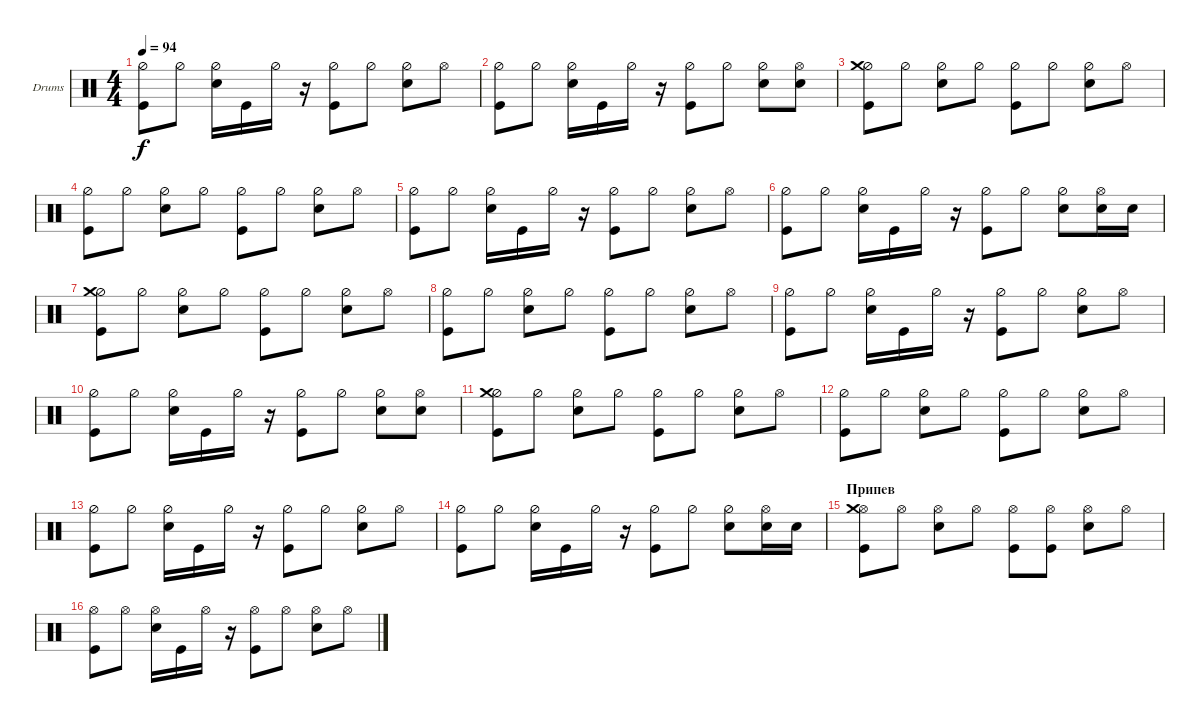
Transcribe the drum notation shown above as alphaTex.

\defaultSystemsLayout 4
\bracketExtendMode groupsimilarinstruments
\firstSystemTrackNameOrientation horizontal
\otherSystemsTrackNameOrientation horizontal
\track ("Drumkit" "Drums") {instrument percussion}
\staff {score}
\articulation defaults
\ts (4 4)
\tempo 94
\clef neutral
\scale
0.333333
\ks c
("Kick (hit)" "Hi-Hat (half)").8{dy f} "Hi-Hat (half)".8 ("Snare (hit) 2" "Hi-Hat (half)").16 "Kick (hit)".16 "Hi-Hat (half)".16 r.16 ("Hi-Hat (half)" "Kick (hit)").8 "Hi-Hat (half)".8 ("Hi-Hat (half)" "Snare (hit) 2").8 "Hi-Hat (open)".8 |
\scale
0.333333 ("Kick (hit)" "Hi-Hat (half)").8 "Hi-Hat (half)".8 ("Snare (hit) 2" "Hi-Hat (half)").16 "Kick (hit)".16 "Hi-Hat (half)".16 r.16 ("Hi-Hat (half)" "Kick (hit)").8 "Hi-Hat (half)".8 ("Hi-Hat (half)" "Snare (hit) 2").8 ("Hi-Hat (open)" "Snare (hit) 2").8 |
("Kick (hit)" "Hi-Hat (half)" "Crash medium (hit)").8 "Hi-Hat (half)".8 ("Snare (hit) 2" "Hi-Hat (half)").8 "Hi-Hat (half)".8 ("Kick (hit)" "Hi-Hat (half)").8 "Hi-Hat (half)".8 ("Snare (hit) 2" "Hi-Hat (half)").8 "Hi-Hat (open)".8 |
("Kick (hit)" "Hi-Hat (half)").8 "Hi-Hat (half)".8 ("Snare (hit) 2" "Hi-Hat (half)").8 "Hi-Hat (half)".8 ("Kick (hit)" "Hi-Hat (half)").8 "Hi-Hat (half)".8 ("Snare (hit) 2" "Hi-Hat (half)").8 "Hi-Hat (open)".8 |
("Kick (hit)" "Hi-Hat (half)").8 "Hi-Hat (half)".8 ("Snare (hit) 2" "Hi-Hat (half)").16 "Kick (hit)".16 "Hi-Hat (half)".16 r.16 ("Hi-Hat (half)" "Kick (hit)").8 "Hi-Hat (half)".8 ("Hi-Hat (half)" "Snare (hit) 2").8 "Hi-Hat (open)".8 |
("Kick (hit)" "Hi-Hat (half)").8 "Hi-Hat (half)".8 ("Snare (hit) 2" "Hi-Hat (half)").16 "Kick (hit)".16 "Hi-Hat (half)".16 r.16 ("Hi-Hat (half)" "Kick (hit)").8 "Hi-Hat (half)".8 ("Hi-Hat (half)" "Snare (hit) 2").8 ("Hi-Hat (open)" "Snare (hit) 2").16 "Snare (hit) 2".16 |
("Kick (hit)" "Hi-Hat (half)" "Crash medium (hit)").8 "Hi-Hat (half)".8 ("Snare (hit) 2" "Hi-Hat (half)").8 "Hi-Hat (half)".8 ("Kick (hit)" "Hi-Hat (half)").8 "Hi-Hat (half)".8 ("Snare (hit) 2" "Hi-Hat (half)").8 "Hi-Hat (open)".8 |
("Kick (hit)" "Hi-Hat (half)").8 "Hi-Hat (half)".8 ("Snare (hit) 2" "Hi-Hat (half)").8 "Hi-Hat (half)".8 ("Kick (hit)" "Hi-Hat (half)").8 "Hi-Hat (half)".8 ("Snare (hit) 2" "Hi-Hat (half)").8 "Hi-Hat (open)".8 |
("Kick (hit)" "Hi-Hat (half)").8 "Hi-Hat (half)".8 ("Snare (hit) 2" "Hi-Hat (half)").16 "Kick (hit)".16 "Hi-Hat (half)".16 r.16 ("Hi-Hat (half)" "Kick (hit)").8 "Hi-Hat (half)".8 ("Hi-Hat (half)" "Snare (hit) 2").8 "Hi-Hat (open)".8 |
("Kick (hit)" "Hi-Hat (half)").8 "Hi-Hat (half)".8 ("Snare (hit) 2" "Hi-Hat (half)").16 "Kick (hit)".16 "Hi-Hat (half)".16 r.16 ("Hi-Hat (half)" "Kick (hit)").8 "Hi-Hat (half)".8 ("Hi-Hat (half)" "Snare (hit) 2").8 ("Hi-Hat (open)" "Snare (hit) 2").8 |
("Kick (hit)" "Hi-Hat (half)" "Crash medium (hit)").8 "Hi-Hat (half)".8 ("Snare (hit) 2" "Hi-Hat (half)").8 "Hi-Hat (half)".8 ("Kick (hit)" "Hi-Hat (half)").8 "Hi-Hat (half)".8 ("Snare (hit) 2" "Hi-Hat (half)").8 "Hi-Hat (open)".8 |
("Kick (hit)" "Hi-Hat (half)").8 "Hi-Hat (half)".8 ("Snare (hit) 2" "Hi-Hat (half)").8 "Hi-Hat (half)".8 ("Kick (hit)" "Hi-Hat (half)").8 "Hi-Hat (half)".8 ("Snare (hit) 2" "Hi-Hat (half)").8 "Hi-Hat (open)".8 |
("Kick (hit)" "Hi-Hat (half)").8 "Hi-Hat (half)".8 ("Snare (hit) 2" "Hi-Hat (half)").16 "Kick (hit)".16 "Hi-Hat (half)".16 r.16 ("Hi-Hat (half)" "Kick (hit)").8 "Hi-Hat (half)".8 ("Hi-Hat (half)" "Snare (hit) 2").8 "Hi-Hat (open)".8 |
("Kick (hit)" "Hi-Hat (half)").8 "Hi-Hat (half)".8 ("Snare (hit) 2" "Hi-Hat (half)").16 "Kick (hit)".16 "Hi-Hat (half)".16 r.16 ("Hi-Hat (half)" "Kick (hit)").8 "Hi-Hat (half)".8 ("Hi-Hat (half)" "Snare (hit) 2").8 ("Hi-Hat (open)" "Snare (hit) 2").16 "Snare (hit) 2".16 |
\section ("" "Припев")
("Kick (hit)" "Hi-Hat (open)" "Crash medium (hit)").8 "Hi-Hat (open)".8 ("Snare (hit) 2" "Hi-Hat (open)").8 "Hi-Hat (open)".8 ("Kick (hit)" "Hi-Hat (open)").8 ("Kick (hit)" "Hi-Hat (open)").8 ("Snare (hit) 2" "Hi-Hat (open)").8 "Hi-Hat (open)".8 |
("Kick (hit)" "Hi-Hat (open)").8 "Hi-Hat (open)".8 ("Snare (hit) 2" "Hi-Hat (open)").16 "Kick (hit)".16 "Hi-Hat (open)".16 r.16 ("Hi-Hat (open)" "Kick (hit)").8 "Hi-Hat (open)".8 ("Hi-Hat (open)" "Snare (hit) 2").8 "Hi-Hat (open)".8
